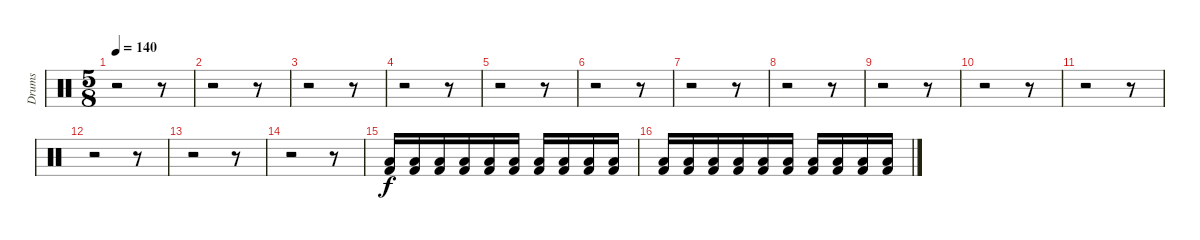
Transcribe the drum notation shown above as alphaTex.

\track ("Drums" "Drums") {instrument percussion}
\staff {score}
\articulation defaults
\ts (5 8)
\tempo 140
\clef neutral
\ks c
r.2{dy f} r.8 |
r.2 r.8 |
r.2 r.8 |
r.2 r.8 |
r.2 r.8 |
r.2 r.8 |
r.2 r.8 |
r.2 r.8 |
r.2 r.8 |
r.2 r.8 |
r.2 r.8 |
r.2 r.8 |
r.2 r.8 |
r.2 r.8 |
("Low Floor Tom (hit)" "Kick (hit) 2").16{volume 4 balance 16} ("Low Floor Tom (hit)" "Kick (hit) 2").16{volume 11} ("Low Floor Tom (hit)" "Kick (hit) 2").16 ("Low Floor Tom (hit)" "Kick (hit) 2").16 ("Low Floor Tom (hit)" "Kick (hit) 2").16 ("Low Floor Tom (hit)" "Kick (hit) 2").16 ("Low Floor Tom (hit)" "Kick (hit) 2").16 ("Low Floor Tom (hit)" "Kick (hit) 2").16 ("Low Floor Tom (hit)" "Kick (hit) 2").16 ("Low Floor Tom (hit)" "Kick (hit) 2").16 |
("Low Floor Tom (hit)" "Kick (hit) 2").16 ("Low Floor Tom (hit)" "Kick (hit) 2").16 ("Low Floor Tom (hit)" "Kick (hit) 2").16 ("Low Floor Tom (hit)" "Kick (hit) 2").16 ("Low Floor Tom (hit)" "Kick (hit) 2").16 ("Low Floor Tom (hit)" "Kick (hit) 2").16 ("Low Floor Tom (hit)" "Kick (hit) 2").16{volume 8} ("Low Floor Tom (hit)" "Kick (hit) 2").16 ("Low Floor Tom (hit)" "Kick (hit) 2").16 ("Low Floor Tom (hit)" "Kick (hit) 2").16
